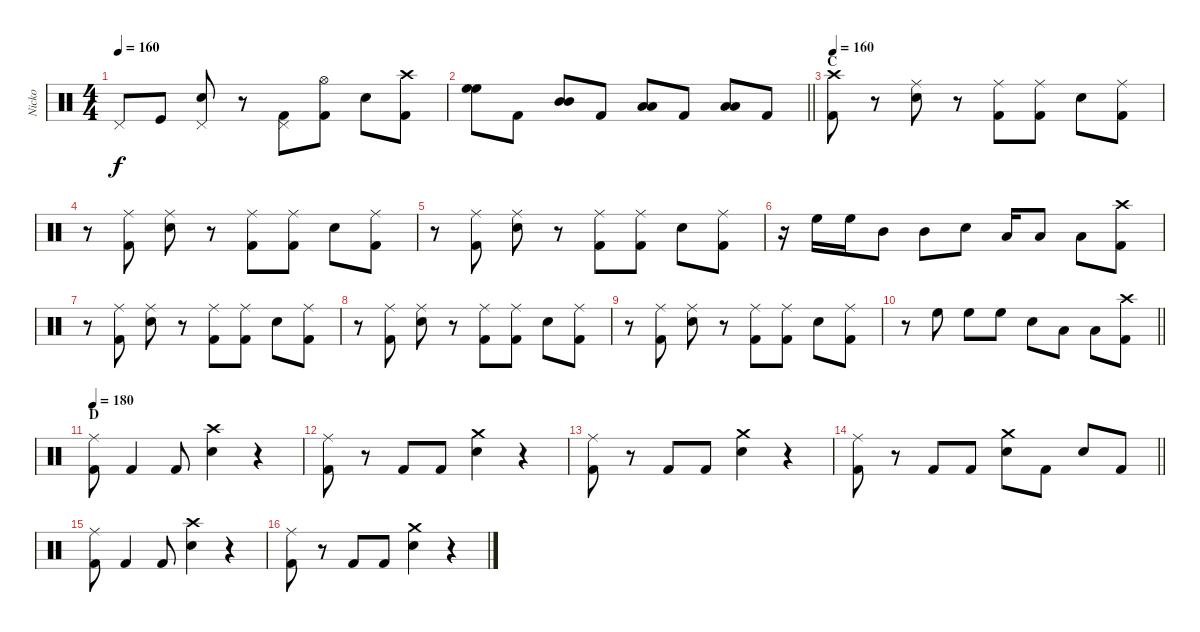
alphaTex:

\track ("Nicko" "Nicko") {instrument percussion}
\staff {score}
\articulation defaults
\ts (4 4)
\tempo 160
\clef neutral
\ks c "Pedal Hi-Hat (hit)".8{dy f} "Kick (hit)".8
("Pedal Hi-Hat (hit)" "Snare (hit) 2").8 r.8 ("Pedal Hi-Hat (hit)" "Kick (hit) 2").8 ("Hi-Hat (open)" "Kick (hit) 2").8 "Snare (hit) 2".8 ("Crash high (hit)" "Kick (hit) 2").8 |
\barLineRight lightlight
("High Floor Tom (hit)" "High Floor Tom (hit)").8 "Kick (hit) 2".8 ("Mid Tom (hit)" "Mid Tom (hit)").8 "Kick (hit) 2".8 ("Low Tom (hit)" "Low Tom (hit)").8 "Kick (hit) 2".8 ("Low Floor Tom (hit)" "Low Floor Tom (hit)").8 "Kick (hit) 2".8 |
\section ("" "C")
\tempo 160
("Crash high (hit)" "Kick (hit) 2").8 r.8 ("Ride (middle)" "Snare (hit) 2").8 r.8 ("Ride (middle)" "Kick (hit) 2").8 ("Ride (middle)" "Kick (hit) 2").8 "Snare (hit) 2".8 ("Ride (middle)" "Kick (hit) 2").8 |
r.8 ("Ride (middle)" "Kick (hit) 2").8 ("Ride (middle)" "Snare (hit) 2").8 r.8 ("Ride (middle)" "Kick (hit) 2").8 ("Ride (middle)" "Kick (hit) 2").8 "Snare (hit) 2".8 ("Ride (middle)" "Kick (hit) 2").8 |
r.8 ("Ride (middle)" "Kick (hit) 2").8 ("Ride (middle)" "Snare (hit) 2").8 r.8 ("Ride (middle)" "Kick (hit) 2").8 ("Ride (middle)" "Kick (hit) 2").8 "Snare (hit) 2".8 ("Ride (middle)" "Kick (hit) 2").8 |
r.16 "High Floor Tom (hit)".16 "High Floor Tom (hit)".16 "Mid Tom (hit)".8 "Mid Tom (hit)".8 "Snare (hit) 2".8 "Low Tom (hit)".16 "Low Tom (hit)".8 "Low Floor Tom (hit)".8 ("Crash high (hit)" "Kick (hit) 2").8 |
r.8 ("Ride (middle)" "Kick (hit) 2").8 ("Ride (middle)" "Snare (hit) 2").8 r.8 ("Ride (middle)" "Kick (hit) 2").8 ("Ride (middle)" "Kick (hit) 2").8 "Snare (hit) 2".8 ("Ride (middle)" "Kick (hit) 2").8 |
r.8 ("Ride (middle)" "Kick (hit) 2").8 ("Ride (middle)" "Snare (hit) 2").8 r.8 ("Ride (middle)" "Kick (hit) 2").8 ("Ride (middle)" "Kick (hit) 2").8 "Snare (hit) 2".8 ("Ride (middle)" "Kick (hit) 2").8 |
r.8 ("Ride (middle)" "Kick (hit) 2").8 ("Ride (middle)" "Snare (hit) 2").8 r.8 ("Ride (middle)" "Kick (hit) 2").8 ("Ride (middle)" "Kick (hit) 2").8 "Snare (hit) 2".8 ("Ride (middle)" "Kick (hit) 2").8 |
\barLineRight lightlight
r.8 "High Floor Tom (hit)".8 "High Floor Tom (hit)".8 "High Floor Tom (hit)".8 "Snare (hit) 2".8 "Low Tom (hit)".8 "Low Floor Tom (hit)".8 ("Crash high (hit)" "Kick (hit) 2").8 |
\section ("" "D")
\tempo 180
("Ride (middle)" "Kick (hit) 2").8 "Kick (hit) 2".4 "Kick (hit) 2".8 ("Crash high (hit)" "Snare (hit) 2").4 r.4 |
("Ride (middle)" "Kick (hit) 2").8 r.8 "Kick (hit) 2".8 "Kick (hit) 2".8 ("Crash medium (hit)" "Snare (hit) 2").4 r.4 |
("Ride (middle)" "Kick (hit) 2").8 r.8 "Kick (hit) 2".8 "Kick (hit) 2".8 ("Crash medium (hit)" "Snare (hit) 2").4 r.4 |
\barLineRight lightlight
("Ride (middle)" "Kick (hit) 2").8 r.8 "Kick (hit) 2".8 "Kick (hit) 2".8 ("Crash medium (hit)" "Snare (hit) 2").8 "Kick (hit) 2".8 "Snare (hit) 2".8 "Kick (hit) 2".8 |
("Ride (middle)" "Kick (hit) 2").8 "Kick (hit) 2".4 "Kick (hit) 2".8 ("Crash high (hit)" "Snare (hit) 2").4 r.4 |
("Ride (middle)" "Kick (hit) 2").8 r.8 "Kick (hit) 2".8 "Kick (hit) 2".8 ("Crash medium (hit)" "Snare (hit) 2").4 r.4
